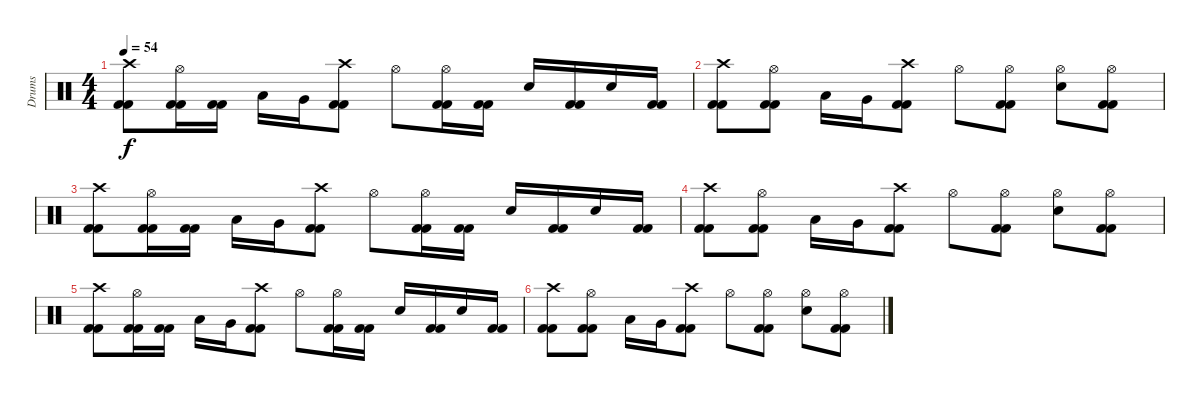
\track ("Drums" "Drums") {instrument percussion}
\staff {score}
\articulation defaults
\ts (4 4)
\tempo 54
\clef neutral
\ks c
("Kick (hit) 2" "Kick (hit) 2" "Crash high (hit)").8{dy f} ("Kick (hit) 2" "Kick (hit) 2" "Hi-Hat (open)").16 ("Kick (hit) 2" "Kick (hit) 2").16 "Low Tom (hit)".16 "Very Low Tom (hit)".16 ("Kick (hit) 2" "Kick (hit) 2" "Crash high (hit)").8 "Hi-Hat (open)".8 ("Kick (hit) 2" "Kick (hit) 2" "Hi-Hat (open)").16 ("Kick (hit) 2" "Kick (hit) 2").16 "Snare (hit) 2".16 ("Kick (hit) 2" "Kick (hit) 2").16 "Snare (hit) 2".16 ("Kick (hit) 2" "Kick (hit) 2").16 |
("Kick (hit) 2" "Kick (hit) 2" "Crash high (hit)").8 ("Kick (hit) 2" "Kick (hit) 2" "Hi-Hat (open)").8 "Low Tom (hit)".16 "Very Low Tom (hit)".16 ("Kick (hit) 2" "Kick (hit) 2" "Crash high (hit)").8 "Hi-Hat (open)".8 ("Kick (hit) 2" "Kick (hit) 2" "Hi-Hat (open)").8 ("Snare (hit) 2" "Hi-Hat (open)").8 ("Kick (hit) 2" "Kick (hit) 2" "Hi-Hat (open)").8 |
("Kick (hit) 2" "Kick (hit) 2" "Crash high (hit)").8{volume 8} ("Kick (hit) 2" "Kick (hit) 2" "Hi-Hat (open)").16 ("Kick (hit) 2" "Kick (hit) 2").16 "Low Tom (hit)".16 "Very Low Tom (hit)".16 ("Kick (hit) 2" "Kick (hit) 2" "Crash high (hit)").8 "Hi-Hat (open)".8 ("Kick (hit) 2" "Kick (hit) 2" "Hi-Hat (open)").16 ("Kick (hit) 2" "Kick (hit) 2").16 "Snare (hit) 2".16 ("Kick (hit) 2" "Kick (hit) 2").16 "Snare (hit) 2".16 ("Kick (hit) 2" "Kick (hit) 2").16 |
("Kick (hit) 2" "Kick (hit) 2" "Crash high (hit)").8 ("Kick (hit) 2" "Kick (hit) 2" "Hi-Hat (open)").8 "Low Tom (hit)".16 "Very Low Tom (hit)".16 ("Kick (hit) 2" "Kick (hit) 2" "Crash high (hit)").8 "Hi-Hat (open)".8 ("Kick (hit) 2" "Kick (hit) 2" "Hi-Hat (open)").8 ("Snare (hit) 2" "Hi-Hat (open)").8 ("Kick (hit) 2" "Kick (hit) 2" "Hi-Hat (open)").8 |
("Kick (hit) 2" "Kick (hit) 2" "Crash high (hit)").8{volume 0} ("Kick (hit) 2" "Kick (hit) 2" "Hi-Hat (open)").16 ("Kick (hit) 2" "Kick (hit) 2").16 "Low Tom (hit)".16 "Very Low Tom (hit)".16 ("Kick (hit) 2" "Kick (hit) 2" "Crash high (hit)").8 "Hi-Hat (open)".8 ("Kick (hit) 2" "Kick (hit) 2" "Hi-Hat (open)").16 ("Kick (hit) 2" "Kick (hit) 2").16 "Snare (hit) 2".16 ("Kick (hit) 2" "Kick (hit) 2").16 "Snare (hit) 2".16 ("Kick (hit) 2" "Kick (hit) 2").16 |
("Kick (hit) 2" "Kick (hit) 2" "Crash high (hit)").8 ("Kick (hit) 2" "Kick (hit) 2" "Hi-Hat (open)").8 "Low Tom (hit)".16 "Very Low Tom (hit)".16 ("Kick (hit) 2" "Kick (hit) 2" "Crash high (hit)").8 "Hi-Hat (open)".8 ("Kick (hit) 2" "Kick (hit) 2" "Hi-Hat (open)").8 ("Snare (hit) 2" "Hi-Hat (open)").8 ("Kick (hit) 2" "Kick (hit) 2" "Hi-Hat (open)").8
